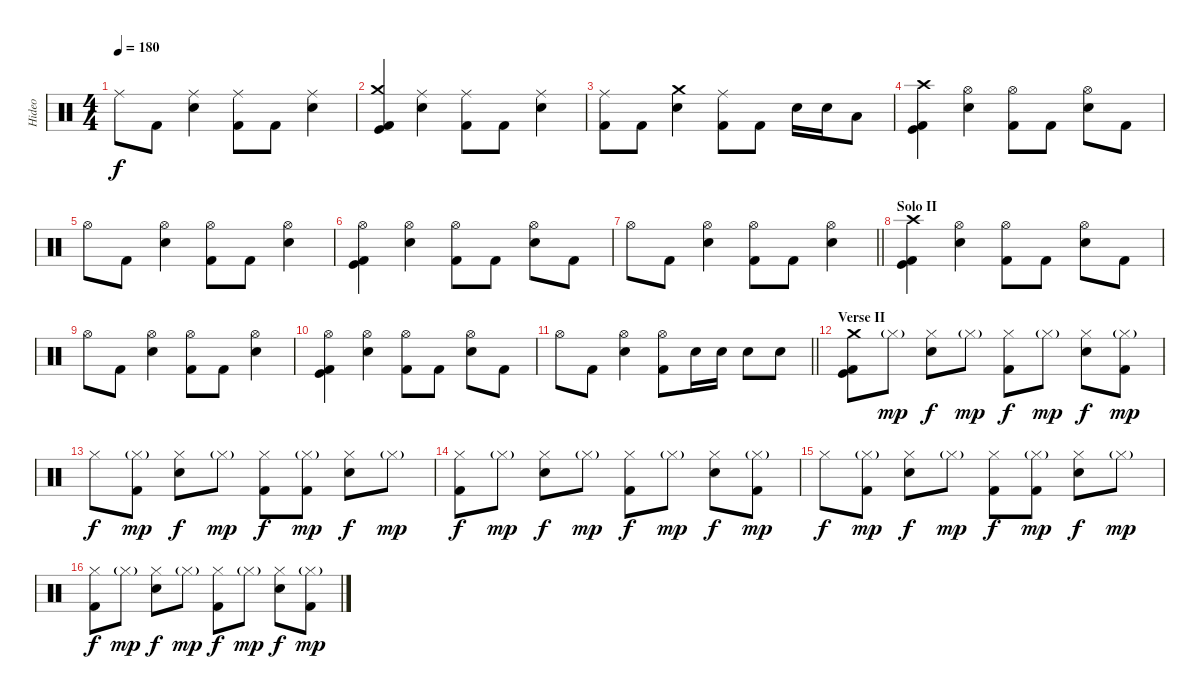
\track ("Hideo" "Hideo") {instrument percussion}
\staff {score}
\articulation defaults
\ts (4 4)
\tempo 180
\clef neutral
\ks c "Ride (middle)".8{dy f} "Kick (hit) 2".8
("Ride (middle)" "Electric Snare (hit)").4 ("Ride (middle)" "Kick (hit) 2").8 "Kick (hit) 2".8 ("Ride (middle)" "Electric Snare (hit)").4 |
("Crash medium (hit)" "Kick (hit) 2" "Kick (hit)").4 ("Ride (middle)" "Electric Snare (hit)").4 ("Ride (middle)" "Kick (hit) 2").8 "Kick (hit) 2".8 ("Ride (middle)" "Electric Snare (hit)").4 |
("Ride (middle)" "Kick (hit) 2").8 "Kick (hit) 2".8 ("Crash medium (hit)" "Electric Snare (hit)").4 ("Ride (middle)" "Kick (hit) 2").8 "Kick (hit) 2".8 "Electric Snare (hit)".16 "Electric Snare (hit)".16 "Low Tom (hit)".8 |
("Crash high (hit)" "Kick (hit) 2" "Kick (hit)").4 ("Hi-Hat (open)" "Electric Snare (hit)").4 ("Hi-Hat (open)" "Kick (hit) 2").8 "Kick (hit) 2".8 ("Hi-Hat (open)" "Electric Snare (hit)").8 "Kick (hit) 2".8 |
"Hi-Hat (open)".8 "Kick (hit) 2".8 ("Hi-Hat (open)" "Electric Snare (hit)").4 ("Hi-Hat (open)" "Kick (hit) 2").8 "Kick (hit) 2".8 ("Hi-Hat (open)" "Electric Snare (hit)").4 |
("Hi-Hat (open)" "Kick (hit) 2" "Kick (hit)").4 ("Hi-Hat (open)" "Electric Snare (hit)").4 ("Hi-Hat (open)" "Kick (hit) 2").8 "Kick (hit) 2".8 ("Hi-Hat (open)" "Electric Snare (hit)").8 "Kick (hit) 2".8 |
\barLineRight lightlight "Hi-Hat (open)".8 "Kick (hit) 2".8
("Hi-Hat (open)" "Electric Snare (hit)").4 ("Hi-Hat (open)" "Kick (hit) 2").8 "Kick (hit) 2".8 ("Hi-Hat (open)" "Electric Snare (hit)").4 |
\section ("" "Solo II")
("Crash high (hit)" "Kick (hit) 2" "Kick (hit)").4 ("Hi-Hat (open)" "Electric Snare (hit)").4 ("Hi-Hat (open)" "Kick (hit) 2").8 "Kick (hit) 2".8 ("Hi-Hat (open)" "Electric Snare (hit)").8 "Kick (hit) 2".8 |
"Hi-Hat (open)".8 "Kick (hit) 2".8 ("Hi-Hat (open)" "Electric Snare (hit)").4 ("Hi-Hat (open)" "Kick (hit) 2").8 "Kick (hit) 2".8 ("Hi-Hat (open)" "Electric Snare (hit)").4 |
("Hi-Hat (open)" "Kick (hit) 2" "Kick (hit)").4 ("Hi-Hat (open)" "Electric Snare (hit)").4 ("Hi-Hat (open)" "Kick (hit) 2").8 "Kick (hit) 2".8 ("Hi-Hat (open)" "Electric Snare (hit)").8 "Kick (hit) 2".8 |
\barLineRight lightlight "Hi-Hat (open)".8 "Kick (hit) 2".8
("Hi-Hat (open)" "Electric Snare (hit)").4 ("Hi-Hat (open)" "Kick (hit) 2").8 "Electric Snare (hit)".16 "Electric Snare (hit)".16 "Electric Snare (hit)".8 "Electric Snare (hit)".8 |
\section ("" "Verse II")
("Crash medium (hit)" "Kick (hit) 2" "Kick (hit)").8 "Hi-Hat (closed)"{g}.8{dy mp} ("Hi-Hat (closed)" "Electric Snare (hit)").8{dy f} "Hi-Hat (closed)"{g}.8{dy mp} ("Hi-Hat (closed)" "Kick (hit) 2").8{dy f} "Hi-Hat (closed)"{g}.8{dy mp} ("Hi-Hat (closed)" "Electric Snare (hit)").8{dy f} ("Hi-Hat (closed)"{g} "Kick (hit) 2").8{dy mp} |
"Hi-Hat (closed)".8{dy f} ("Hi-Hat (closed)"{g} "Kick (hit) 2").8{dy mp} ("Hi-Hat (closed)" "Electric Snare (hit)").8{dy f} "Hi-Hat (closed)"{g}.8{dy mp} ("Hi-Hat (closed)" "Kick (hit) 2").8{dy f} ("Hi-Hat (closed)"{g} "Kick (hit) 2").8{dy mp} ("Hi-Hat (closed)" "Electric Snare (hit)").8{dy f} "Hi-Hat (closed)"{g}.8{dy mp} |
("Hi-Hat (closed)" "Kick (hit) 2").8{dy f} "Hi-Hat (closed)"{g}.8{dy mp} ("Hi-Hat (closed)" "Electric Snare (hit)").8{dy f} "Hi-Hat (closed)"{g}.8{dy mp} ("Hi-Hat (closed)" "Kick (hit) 2").8{dy f} "Hi-Hat (closed)"{g}.8{dy mp} ("Hi-Hat (closed)" "Electric Snare (hit)").8{dy f} ("Hi-Hat (closed)"{g} "Kick (hit) 2").8{dy mp} |
"Hi-Hat (closed)".8{dy f} ("Hi-Hat (closed)"{g} "Kick (hit) 2").8{dy mp} ("Hi-Hat (closed)" "Electric Snare (hit)").8{dy f} "Hi-Hat (closed)"{g}.8{dy mp} ("Hi-Hat (closed)" "Kick (hit) 2").8{dy f} ("Hi-Hat (closed)"{g} "Kick (hit) 2").8{dy mp} ("Hi-Hat (closed)" "Electric Snare (hit)").8{dy f} "Hi-Hat (closed)"{g}.8{dy mp} |
("Hi-Hat (closed)" "Kick (hit) 2").8{dy f} "Hi-Hat (closed)"{g}.8{dy mp} ("Hi-Hat (closed)" "Electric Snare (hit)").8{dy f} "Hi-Hat (closed)"{g}.8{dy mp} ("Hi-Hat (closed)" "Kick (hit) 2").8{dy f} "Hi-Hat (closed)"{g}.8{dy mp} ("Hi-Hat (closed)" "Electric Snare (hit)").8{dy f} ("Hi-Hat (closed)"{g} "Kick (hit) 2").8{dy mp}
